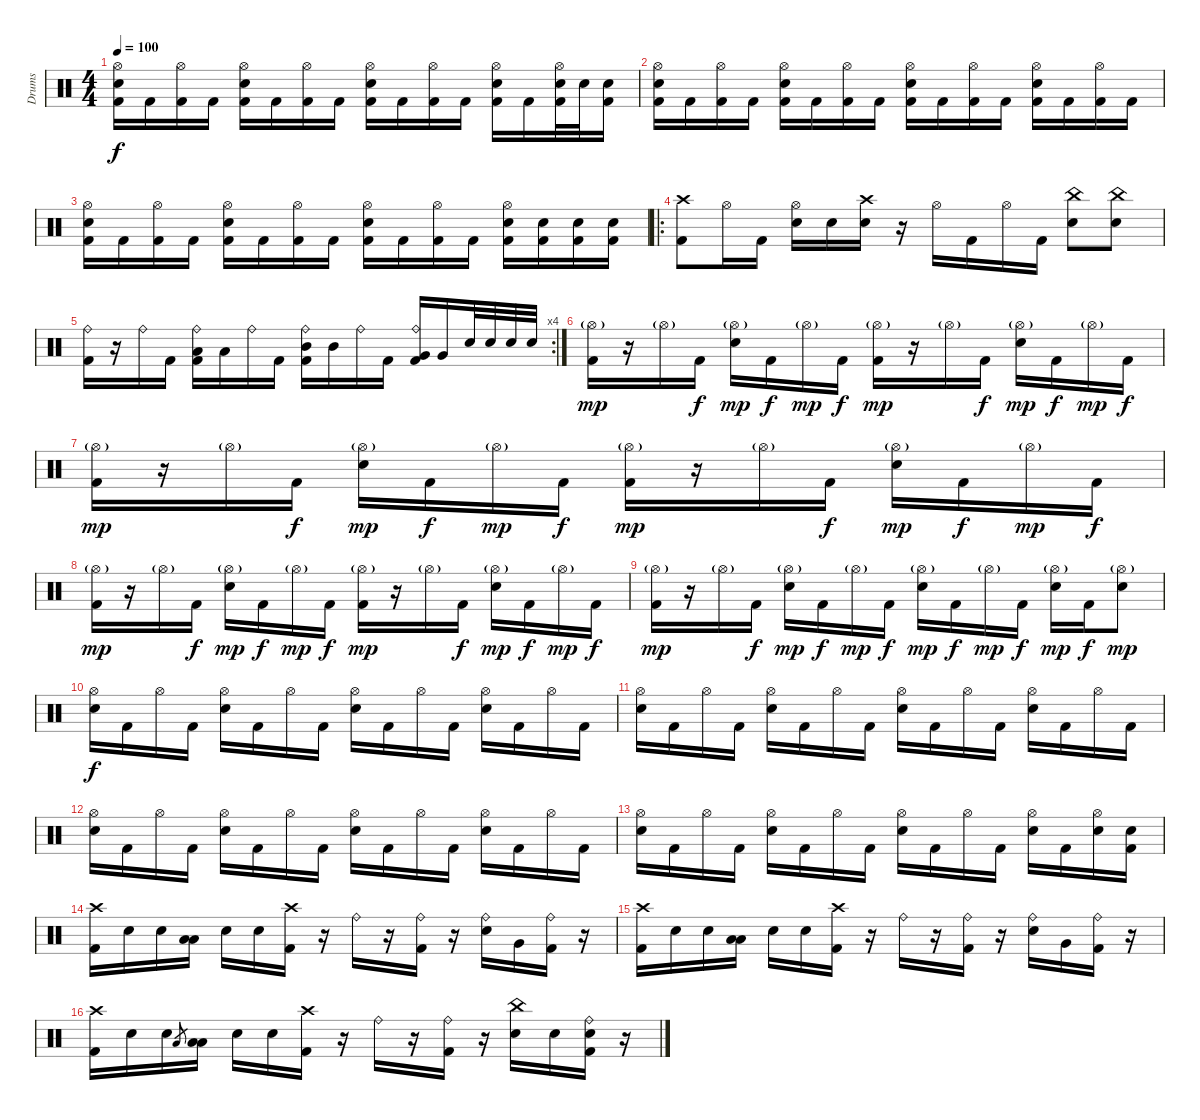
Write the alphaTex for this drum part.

\track ("Drums" "Drums") {instrument percussion}
\staff {score}
\articulation defaults
\ts (4 4)
\tempo 100
\clef neutral
\ks c
("Hi-Hat (open)" "Electric Snare (hit)" "Kick (hit) 2").16{dy f} "Kick (hit) 2".16 ("Hi-Hat (open)" "Kick (hit) 2").16 "Kick (hit) 2".16 ("Hi-Hat (open)" "Electric Snare (hit)" "Kick (hit) 2").16 "Kick (hit) 2".16 ("Hi-Hat (open)" "Kick (hit) 2").16 "Kick (hit) 2".16 ("Hi-Hat (open)" "Electric Snare (hit)" "Kick (hit) 2").16 "Kick (hit) 2".16 ("Hi-Hat (open)" "Kick (hit) 2").16 "Kick (hit) 2".16 ("Hi-Hat (open)" "Electric Snare (hit)" "Kick (hit) 2").16 "Kick (hit) 2".16 ("Hi-Hat (open)" "Electric Snare (hit)" "Kick (hit) 2").32 "Electric Snare (hit)".32 ("Electric Snare (hit)" "Kick (hit) 2").16 |
("Hi-Hat (open)" "Electric Snare (hit)" "Kick (hit) 2").16 "Kick (hit) 2".16 ("Hi-Hat (open)" "Kick (hit) 2").16 "Kick (hit) 2".16 ("Hi-Hat (open)" "Electric Snare (hit)" "Kick (hit) 2").16 "Kick (hit) 2".16 ("Hi-Hat (open)" "Kick (hit) 2").16 "Kick (hit) 2".16 ("Hi-Hat (open)" "Electric Snare (hit)" "Kick (hit) 2").16 "Kick (hit) 2".16 ("Hi-Hat (open)" "Kick (hit) 2").16 "Kick (hit) 2".16 ("Hi-Hat (open)" "Electric Snare (hit)" "Kick (hit) 2").16 "Kick (hit) 2".16 ("Hi-Hat (open)" "Kick (hit) 2").16 "Kick (hit) 2".16 |
("Hi-Hat (open)" "Electric Snare (hit)" "Kick (hit) 2").16 "Kick (hit) 2".16 ("Hi-Hat (open)" "Kick (hit) 2").16 "Kick (hit) 2".16 ("Hi-Hat (open)" "Electric Snare (hit)" "Kick (hit) 2").16 "Kick (hit) 2".16 ("Hi-Hat (open)" "Kick (hit) 2").16 "Kick (hit) 2".16 ("Hi-Hat (open)" "Electric Snare (hit)" "Kick (hit) 2").16 "Kick (hit) 2".16 ("Hi-Hat (open)" "Kick (hit) 2").16 "Kick (hit) 2".16 ("Hi-Hat (open)" "Electric Snare (hit)" "Kick (hit) 2").16 ("Electric Snare (hit)" "Kick (hit) 2").16 ("Electric Snare (hit)" "Kick (hit) 2").16 ("Electric Snare (hit)" "Kick (hit) 2").16 |
\ro
("Crash high (hit)" "Kick (hit) 2").8 "Hi-Hat (open)".16 "Kick (hit) 2".16 ("Hi-Hat (open)" "Electric Snare (hit)").16 "Electric Snare (hit)".16 ("Crash high (hit)" "Electric Snare (hit)").16 r.16 "Hi-Hat (open)".16 "Kick (hit) 2".16 "Hi-Hat (open)".16 "Kick (hit) 2".16 ("China (hit)" "Electric Snare (hit)").8 ("China (hit)" "Electric Snare (hit)").8 |
\rc 4
("Ride (bell)" "Kick (hit) 2").16 r.16 "Ride (bell)".16 "Kick (hit) 2".16 ("Ride (bell)" "Low Tom (hit)" "Kick (hit) 2").16 "Low Tom (hit)".16 "Ride (bell)".16 "Kick (hit) 2".16 ("Ride (bell)" "Mid Tom (hit)" "Kick (hit) 2").16 "Mid Tom (hit)".16 "Ride (bell)".16 "Kick (hit) 2".16 ("Ride (bell)" "Very Low Tom (hit)" "Kick (hit) 2").16 "Very Low Tom (hit)".16 "Electric Snare (hit)".32 "Electric Snare (hit)".32 "Electric Snare (hit)".32 "Electric Snare (hit)".32 |
("Hi-Hat (open)"{g} "Kick (hit) 2").16{dy mp} r.16 "Hi-Hat (open)"{g}.16 "Kick (hit) 2".16{dy f} ("Hi-Hat (open)"{g} "Electric Snare (hit)").16{dy mp} "Kick (hit) 2".16{dy f} "Hi-Hat (open)"{g}.16{dy mp} "Kick (hit) 2".16{dy f} ("Hi-Hat (open)"{g} "Kick (hit) 2").16{dy mp} r.16 "Hi-Hat (open)"{g}.16 "Kick (hit) 2".16{dy f} ("Hi-Hat (open)"{g} "Electric Snare (hit)").16{dy mp} "Kick (hit) 2".16{dy f} "Hi-Hat (open)"{g}.16{dy mp} "Kick (hit) 2".16{dy f} |
("Hi-Hat (open)"{g} "Kick (hit) 2").16{dy mp} r.16 "Hi-Hat (open)"{g}.16 "Kick (hit) 2".16{dy f} ("Hi-Hat (open)"{g} "Electric Snare (hit)").16{dy mp} "Kick (hit) 2".16{dy f} "Hi-Hat (open)"{g}.16{dy mp} "Kick (hit) 2".16{dy f} ("Hi-Hat (open)"{g} "Kick (hit) 2").16{dy mp} r.16 "Hi-Hat (open)"{g}.16 "Kick (hit) 2".16{dy f} ("Hi-Hat (open)"{g} "Electric Snare (hit)").16{dy mp} "Kick (hit) 2".16{dy f} "Hi-Hat (open)"{g}.16{dy mp} "Kick (hit) 2".16{dy f} |
("Hi-Hat (open)"{g} "Kick (hit) 2").16{dy mp} r.16 "Hi-Hat (open)"{g}.16 "Kick (hit) 2".16{dy f} ("Hi-Hat (open)"{g} "Electric Snare (hit)").16{dy mp} "Kick (hit) 2".16{dy f} "Hi-Hat (open)"{g}.16{dy mp} "Kick (hit) 2".16{dy f} ("Hi-Hat (open)"{g} "Kick (hit) 2").16{dy mp} r.16 "Hi-Hat (open)"{g}.16 "Kick (hit) 2".16{dy f} ("Hi-Hat (open)"{g} "Electric Snare (hit)").16{dy mp} "Kick (hit) 2".16{dy f} "Hi-Hat (open)"{g}.16{dy mp} "Kick (hit) 2".16{dy f} |
("Hi-Hat (open)"{g} "Kick (hit) 2").16{dy mp} r.16 "Hi-Hat (open)"{g}.16 "Kick (hit) 2".16{dy f} ("Hi-Hat (open)"{g} "Electric Snare (hit)").16{dy mp} "Kick (hit) 2".16{dy f} "Hi-Hat (open)"{g}.16{dy mp} "Kick (hit) 2".16{dy f} ("Hi-Hat (open)"{g} "Electric Snare (hit)").16{dy mp} "Kick (hit) 2".16{dy f} "Hi-Hat (open)"{g}.16{dy mp} "Kick (hit) 2".16{dy f} ("Hi-Hat (open)"{g} "Electric Snare (hit)").16{dy mp} "Kick (hit) 2".16{dy f} ("Hi-Hat (open)"{g} "Electric Snare (hit)").8{dy mp} |
("Hi-Hat (open)" "Electric Snare (hit)").16{dy f} "Kick (hit) 2".16 "Hi-Hat (open)".16 "Kick (hit) 2".16 ("Hi-Hat (open)" "Electric Snare (hit)").16 "Kick (hit) 2".16 "Hi-Hat (open)".16 "Kick (hit) 2".16 ("Hi-Hat (open)" "Electric Snare (hit)").16 "Kick (hit) 2".16 "Hi-Hat (open)".16 "Kick (hit) 2".16 ("Hi-Hat (open)" "Electric Snare (hit)").16 "Kick (hit) 2".16 "Hi-Hat (open)".16 "Kick (hit) 2".16 |
("Hi-Hat (open)" "Electric Snare (hit)").16 "Kick (hit) 2".16 "Hi-Hat (open)".16 "Kick (hit) 2".16 ("Hi-Hat (open)" "Electric Snare (hit)").16 "Kick (hit) 2".16 "Hi-Hat (open)".16 "Kick (hit) 2".16 ("Hi-Hat (open)" "Electric Snare (hit)").16 "Kick (hit) 2".16 "Hi-Hat (open)".16 "Kick (hit) 2".16 ("Hi-Hat (open)" "Electric Snare (hit)").16 "Kick (hit) 2".16 "Hi-Hat (open)".16 "Kick (hit) 2".16 |
("Hi-Hat (open)" "Electric Snare (hit)").16 "Kick (hit) 2".16 "Hi-Hat (open)".16 "Kick (hit) 2".16 ("Hi-Hat (open)" "Electric Snare (hit)").16 "Kick (hit) 2".16 "Hi-Hat (open)".16 "Kick (hit) 2".16 ("Hi-Hat (open)" "Electric Snare (hit)").16 "Kick (hit) 2".16 "Hi-Hat (open)".16 "Kick (hit) 2".16 ("Hi-Hat (open)" "Electric Snare (hit)").16 "Kick (hit) 2".16 "Hi-Hat (open)".16 "Kick (hit) 2".16 |
("Hi-Hat (open)" "Electric Snare (hit)").16 "Kick (hit) 2".16 "Hi-Hat (open)".16 "Kick (hit) 2".16 ("Hi-Hat (open)" "Electric Snare (hit)").16 "Kick (hit) 2".16 "Hi-Hat (open)".16 "Kick (hit) 2".16 ("Hi-Hat (open)" "Electric Snare (hit)").16 "Kick (hit) 2".16 "Hi-Hat (open)".16 "Kick (hit) 2".16 ("Hi-Hat (open)" "Electric Snare (hit)").16 "Kick (hit) 2".16 ("Hi-Hat (open)" "Electric Snare (hit)").16 ("Electric Snare (hit)" "Kick (hit) 2").16 |
("Crash high (hit)" "Kick (hit) 2").16 "Electric Snare (hit)".16 "Electric Snare (hit)".16 ("Low Tom (hit)" "Low Tom (hit)").16 "Electric Snare (hit)".16 "Electric Snare (hit)".16 ("Crash high (hit)" "Kick (hit) 2").16 r.16 "Ride (bell)".16 r.16 ("Ride (bell)" "Kick (hit) 2").16 r.16 ("Ride (bell)" "Electric Snare (hit)").16 "Very Low Tom (hit)".16 ("Ride (bell)" "Kick (hit) 2").16 r.16 |
("Crash high (hit)" "Kick (hit) 2").16 "Electric Snare (hit)".16 "Electric Snare (hit)".16 ("Low Tom (hit)" "Low Tom (hit)").16 "Electric Snare (hit)".16 "Electric Snare (hit)".16 ("Crash high (hit)" "Kick (hit) 2").16 r.16 "Ride (bell)".16 r.16 ("Ride (bell)" "Kick (hit) 2").16 r.16 ("Ride (bell)" "Electric Snare (hit)").16 "Very Low Tom (hit)".16 ("Ride (bell)" "Kick (hit) 2").16 r.16 |
("Crash high (hit)" "Kick (hit) 2").16 "Electric Snare (hit)".16 "Electric Snare (hit)".16 "Low Tom (hit)".8{gr} ("Low Tom (hit)" "Low Tom (hit)").16 "Electric Snare (hit)".16 "Electric Snare (hit)".16 ("Crash high (hit)" "Kick (hit) 2").16 r.16 "Ride (bell)".16 r.16 ("Ride (bell)" "Kick (hit) 2").16 r.16 ("China (hit)" "Electric Snare (hit)").16 "Electric Snare (hit)".16 ("Ride (bell)" "Electric Snare (hit)" "Kick (hit) 2").16 r.16
